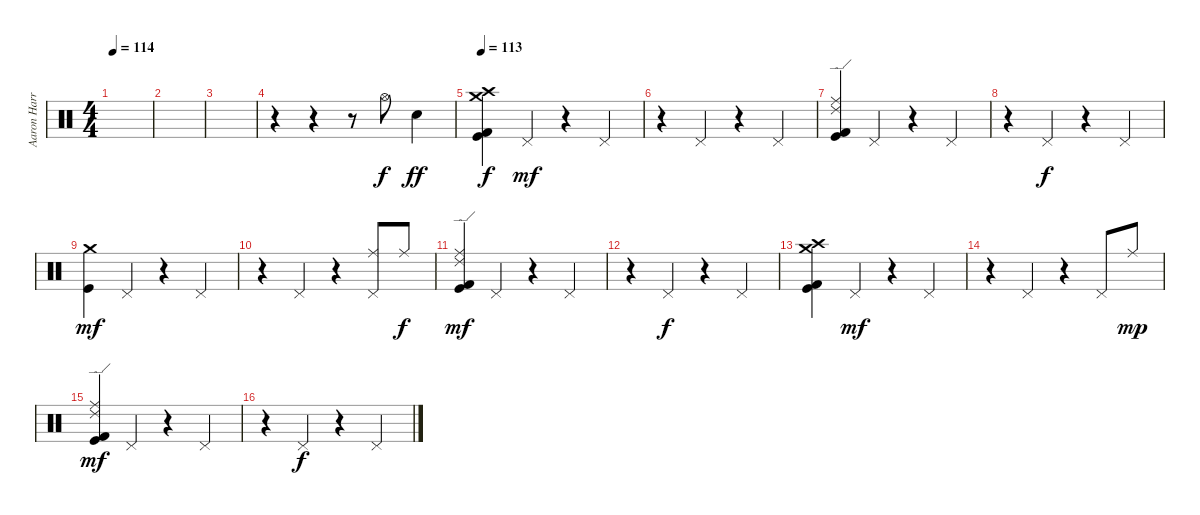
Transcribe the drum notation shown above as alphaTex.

\track ("Aaron Harris" "Aaron Harr") {instrument percussion}
\staff {score}
\articulation defaults
\ts (4 4)
\tempo 114
\clef neutral
\ks c
|
|
|
r.4 r.4 r.8 "Hi-Hat (open)".8{dy f} "Electric Snare (hit)".4{dy ff} |
\tempo 113
("Crash medium (hit)" "Crash high (hit)" "Kick (hit) 2" "Kick (hit)").4{dy f} "Pedal Hi-Hat (hit)".4{dy mf} r.4 "Pedal Hi-Hat (hit)".4 |
r.4 "Pedal Hi-Hat (hit)".4 r.4 "Pedal Hi-Hat (hit)".4 |
("Ride (middle)" "Ride (edge) 2" "Kick (hit) 2" "Kick (hit)").4 "Pedal Hi-Hat (hit)".4 r.4 "Pedal Hi-Hat (hit)".4 |
r.4 "Pedal Hi-Hat (hit)".4{dy f} r.4 "Pedal Hi-Hat (hit)".4 |
("Crash medium (hit)" "Kick (hit)").4{dy mf} "Pedal Hi-Hat (hit)".4 r.4 "Pedal Hi-Hat (hit)".4 |
r.4 "Pedal Hi-Hat (hit)".4 r.4 ("Ride (middle)" "Pedal Hi-Hat (hit)").8 "Ride (middle)".8{dy f} |
("Ride (middle)" "Ride (edge) 2" "Kick (hit) 2" "Kick (hit)").4{dy mf} "Pedal Hi-Hat (hit)".4 r.4 "Pedal Hi-Hat (hit)".4 |
r.4 "Pedal Hi-Hat (hit)".4{dy f} r.4 "Pedal Hi-Hat (hit)".4 |
("Crash medium (hit)" "Crash high (hit)" "Kick (hit) 2" "Kick (hit)").4 "Pedal Hi-Hat (hit)".4{dy mf} r.4 "Pedal Hi-Hat (hit)".4 |
r.4 "Pedal Hi-Hat (hit)".4 r.4 "Pedal Hi-Hat (hit)".8 "Ride (middle)".8{dy mp} |
("Ride (middle)" "Ride (edge) 2" "Kick (hit) 2" "Kick (hit)").4{dy mf} "Pedal Hi-Hat (hit)".4 r.4 "Pedal Hi-Hat (hit)".4 |
r.4 "Pedal Hi-Hat (hit)".4{dy f} r.4 "Pedal Hi-Hat (hit)".4
